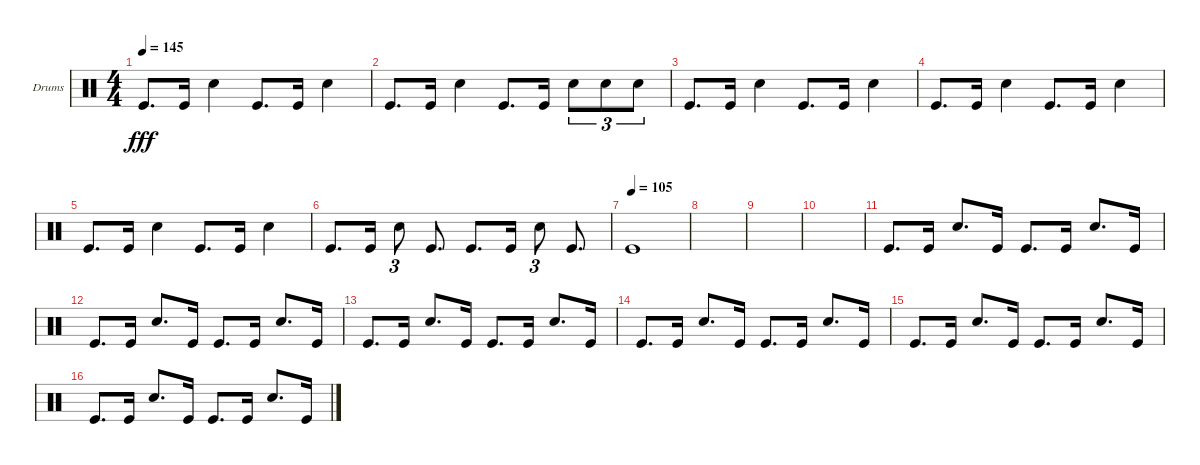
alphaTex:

\defaultSystemsLayout 4
\bracketExtendMode groupsimilarinstruments
\firstSystemTrackNameOrientation horizontal
\otherSystemsTrackNameOrientation horizontal
\track ("Helders" "Drums") {instrument percussion}
\staff {score}
\articulation defaults
\ts (4 4)
\tempo 145
\clef neutral
\ks c "Kick (hit)".8{d dy fff} "Kick (hit)".16 "Snare (hit) 2".4 "Kick (hit)".8{d} "Kick (hit)".16 "Snare (hit) 2".4
|
"Kick (hit)".8{d} "Kick (hit)".16 "Snare (hit) 2".4 "Kick (hit)".8{d} "Kick (hit)".16 "Snare (hit) 2".8{tu (3 2)} "Snare (hit) 2".8{tu (3 2)} "Snare (hit) 2".8{tu (3 2)} |
"Kick (hit)".8{d} "Kick (hit)".16 "Snare (hit) 2".4 "Kick (hit)".8{d} "Kick (hit)".16 "Snare (hit) 2".4 |
"Kick (hit)".8{d} "Kick (hit)".16 "Snare (hit) 2".4 "Kick (hit)".8{d} "Kick (hit)".16 "Snare (hit) 2".4 |
"Kick (hit)".8{d} "Kick (hit)".16 "Snare (hit) 2".4 "Kick (hit)".8{d} "Kick (hit)".16 "Snare (hit) 2".4 |
"Kick (hit)".8{d} "Kick (hit)".16 "Snare (hit) 2".8{tu (3 2)} "Kick (hit)".8{d} "Kick (hit)".8{d} "Kick (hit)".16 "Snare (hit) 2".8{tu (3 2)} "Kick (hit)".8{d} |
\tempo (105)
"Kick (hit)".1 |
|
|
|
"Kick (hit)".8{d} "Kick (hit)".16 "Snare (hit) 2".8{d} "Kick (hit)".16 "Kick (hit)".8{d} "Kick (hit)".16 "Snare (hit) 2".8{d} "Kick (hit)".16 |
"Kick (hit)".8{d} "Kick (hit)".16 "Snare (hit) 2".8{d} "Kick (hit)".16 "Kick (hit)".8{d} "Kick (hit)".16 "Snare (hit) 2".8{d} "Kick (hit)".16 |
"Kick (hit)".8{d} "Kick (hit)".16 "Snare (hit) 2".8{d} "Kick (hit)".16 "Kick (hit)".8{d} "Kick (hit)".16 "Snare (hit) 2".8{d} "Kick (hit)".16 |
"Kick (hit)".8{d} "Kick (hit)".16 "Snare (hit) 2".8{d} "Kick (hit)".16 "Kick (hit)".8{d} "Kick (hit)".16 "Snare (hit) 2".8{d} "Kick (hit)".16 |
"Kick (hit)".8{d} "Kick (hit)".16 "Snare (hit) 2".8{d} "Kick (hit)".16 "Kick (hit)".8{d} "Kick (hit)".16 "Snare (hit) 2".8{d} "Kick (hit)".16 |
"Kick (hit)".8{d} "Kick (hit)".16 "Snare (hit) 2".8{d} "Kick (hit)".16 "Kick (hit)".8{d} "Kick (hit)".16 "Snare (hit) 2".8{d} "Kick (hit)".16
